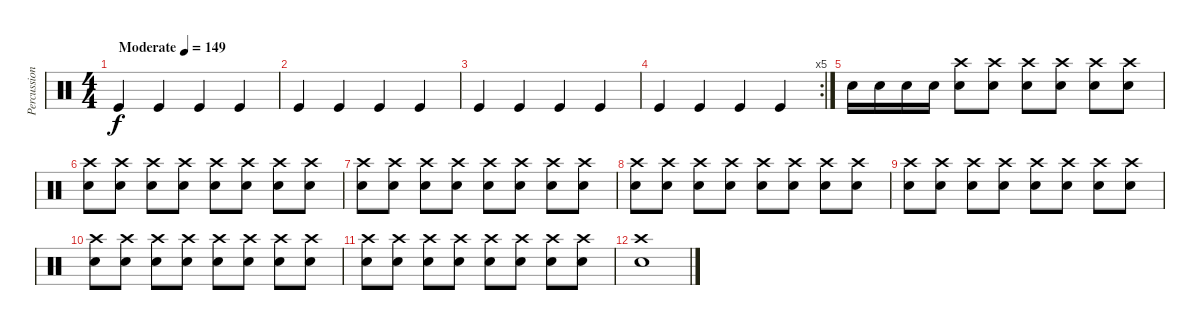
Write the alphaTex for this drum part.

\track ("Percussion" "Percussion") {instrument percussion bank 177}
\staff {score}
\articulation defaults
\ts (4 4)
\tempo (149 "Moderate")
\clef neutral
\ks c "Kick (hit)".4{dy f} "Kick (hit)".4 "Kick (hit)".4 "Kick (hit)".4
|
"Kick (hit)".4 "Kick (hit)".4 "Kick (hit)".4 "Kick (hit)".4 |
"Kick (hit)".4 "Kick (hit)".4 "Kick (hit)".4 "Kick (hit)".4 |
\rc 5 "Kick (hit)".4 "Kick (hit)".4 "Kick (hit)".4 "Kick (hit)".4
|
"Snare (hit) 2".16 "Snare (hit) 2".16 "Snare (hit) 2".16 "Snare (hit) 2".16 ("Crash high (hit)" "Snare (hit) 2").8 ("Crash high (hit)" "Snare (hit) 2").8 ("Crash high (hit)" "Snare (hit) 2").8 ("Crash high (hit)" "Snare (hit) 2").8 ("Crash high (hit)" "Snare (hit) 2").8 ("Crash high (hit)" "Snare (hit) 2").8 |
("Crash high (hit)" "Snare (hit) 2").8 ("Crash high (hit)" "Snare (hit) 2").8 ("Crash high (hit)" "Snare (hit) 2").8 ("Crash high (hit)" "Snare (hit) 2").8 ("Crash high (hit)" "Snare (hit) 2").8 ("Crash high (hit)" "Snare (hit) 2").8 ("Crash high (hit)" "Snare (hit) 2").8 ("Crash high (hit)" "Snare (hit) 2").8 |
("Crash high (hit)" "Snare (hit) 2").8 ("Crash high (hit)" "Snare (hit) 2").8 ("Crash high (hit)" "Snare (hit) 2").8 ("Crash high (hit)" "Snare (hit) 2").8 ("Crash high (hit)" "Snare (hit) 2").8 ("Crash high (hit)" "Snare (hit) 2").8 ("Crash high (hit)" "Snare (hit) 2").8 ("Crash high (hit)" "Snare (hit) 2").8 |
("Crash high (hit)" "Snare (hit) 2").8 ("Crash high (hit)" "Snare (hit) 2").8 ("Crash high (hit)" "Snare (hit) 2").8 ("Crash high (hit)" "Snare (hit) 2").8 ("Crash high (hit)" "Snare (hit) 2").8 ("Crash high (hit)" "Snare (hit) 2").8 ("Crash high (hit)" "Snare (hit) 2").8 ("Crash high (hit)" "Snare (hit) 2").8 |
("Crash high (hit)" "Snare (hit) 2").8 ("Crash high (hit)" "Snare (hit) 2").8 ("Crash high (hit)" "Snare (hit) 2").8 ("Crash high (hit)" "Snare (hit) 2").8 ("Crash high (hit)" "Snare (hit) 2").8 ("Crash high (hit)" "Snare (hit) 2").8 ("Crash high (hit)" "Snare (hit) 2").8 ("Crash high (hit)" "Snare (hit) 2").8 |
("Crash high (hit)" "Snare (hit) 2").8 ("Crash high (hit)" "Snare (hit) 2").8 ("Crash high (hit)" "Snare (hit) 2").8 ("Crash high (hit)" "Snare (hit) 2").8 ("Crash high (hit)" "Snare (hit) 2").8 ("Crash high (hit)" "Snare (hit) 2").8 ("Crash high (hit)" "Snare (hit) 2").8 ("Crash high (hit)" "Snare (hit) 2").8 |
("Crash high (hit)" "Snare (hit) 2").8 ("Crash high (hit)" "Snare (hit) 2").8 ("Crash high (hit)" "Snare (hit) 2").8 ("Crash high (hit)" "Snare (hit) 2").8 ("Crash high (hit)" "Snare (hit) 2").8 ("Crash high (hit)" "Snare (hit) 2").8 ("Crash high (hit)" "Snare (hit) 2").8 ("Crash high (hit)" "Snare (hit) 2").8 |
("Crash high (hit)" "Snare (hit) 2").1
